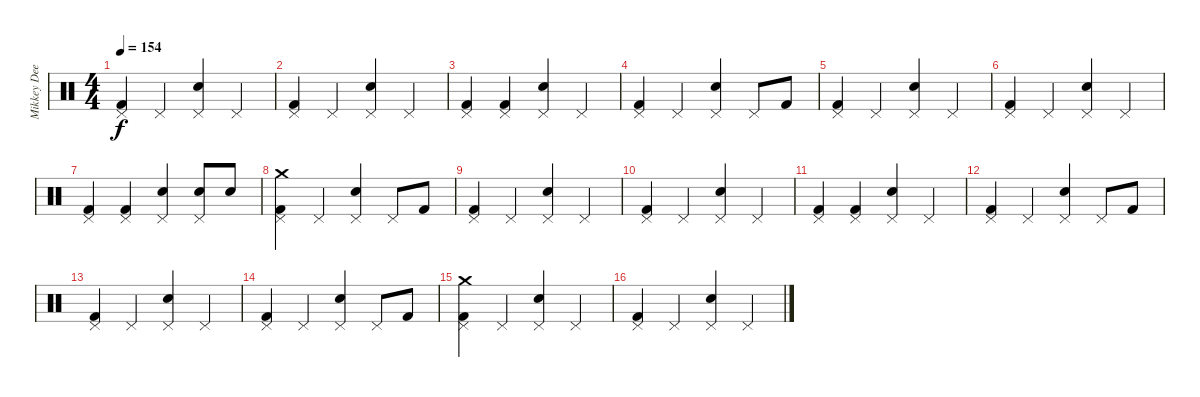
\track ("Mikkey Dee" "Mikkey Dee") {instrument percussion}
\staff {score}
\articulation defaults
\ts (4 4)
\tempo 154
\clef neutral
\ks c
("Kick (hit) 2" "Pedal Hi-Hat (hit)").4{dy f} "Pedal Hi-Hat (hit)".4 ("Snare (hit) 2" "Pedal Hi-Hat (hit)").4 "Pedal Hi-Hat (hit)".4 |
("Kick (hit) 2" "Pedal Hi-Hat (hit)").4 "Pedal Hi-Hat (hit)".4 ("Snare (hit) 2" "Pedal Hi-Hat (hit)").4 "Pedal Hi-Hat (hit)".4 |
("Kick (hit) 2" "Pedal Hi-Hat (hit)").4 ("Kick (hit) 2" "Pedal Hi-Hat (hit)").4 ("Snare (hit) 2" "Pedal Hi-Hat (hit)").4 "Pedal Hi-Hat (hit)".4 |
("Kick (hit) 2" "Pedal Hi-Hat (hit)").4 "Pedal Hi-Hat (hit)".4 ("Snare (hit) 2" "Pedal Hi-Hat (hit)").4 "Pedal Hi-Hat (hit)".8 "Kick (hit) 2".8 |
("Kick (hit) 2" "Pedal Hi-Hat (hit)").4 "Pedal Hi-Hat (hit)".4 ("Snare (hit) 2" "Pedal Hi-Hat (hit)").4 "Pedal Hi-Hat (hit)".4 |
("Kick (hit) 2" "Pedal Hi-Hat (hit)").4 "Pedal Hi-Hat (hit)".4 ("Snare (hit) 2" "Pedal Hi-Hat (hit)").4 "Pedal Hi-Hat (hit)".4 |
("Kick (hit) 2" "Pedal Hi-Hat (hit)").4 ("Kick (hit) 2" "Pedal Hi-Hat (hit)").4 ("Snare (hit) 2" "Pedal Hi-Hat (hit)").4 ("Snare (hit) 2" "Pedal Hi-Hat (hit)").8 "Snare (hit) 2".8 |
("Kick (hit) 2" "Pedal Hi-Hat (hit)" "Crash medium (hit)").4 "Pedal Hi-Hat (hit)".4 ("Snare (hit) 2" "Pedal Hi-Hat (hit)").4 "Pedal Hi-Hat (hit)".8 "Kick (hit) 2".8 |
("Kick (hit) 2" "Pedal Hi-Hat (hit)").4 "Pedal Hi-Hat (hit)".4 ("Snare (hit) 2" "Pedal Hi-Hat (hit)").4 "Pedal Hi-Hat (hit)".4 |
("Kick (hit) 2" "Pedal Hi-Hat (hit)").4 "Pedal Hi-Hat (hit)".4 ("Snare (hit) 2" "Pedal Hi-Hat (hit)").4 "Pedal Hi-Hat (hit)".4 |
("Kick (hit) 2" "Pedal Hi-Hat (hit)").4 ("Kick (hit) 2" "Pedal Hi-Hat (hit)").4 ("Snare (hit) 2" "Pedal Hi-Hat (hit)").4 "Pedal Hi-Hat (hit)".4 |
("Kick (hit) 2" "Pedal Hi-Hat (hit)").4 "Pedal Hi-Hat (hit)".4 ("Snare (hit) 2" "Pedal Hi-Hat (hit)").4 "Pedal Hi-Hat (hit)".8 "Kick (hit) 2".8 |
("Kick (hit) 2" "Pedal Hi-Hat (hit)").4 "Pedal Hi-Hat (hit)".4 ("Snare (hit) 2" "Pedal Hi-Hat (hit)").4 "Pedal Hi-Hat (hit)".4 |
("Kick (hit) 2" "Pedal Hi-Hat (hit)").4 "Pedal Hi-Hat (hit)".4 ("Snare (hit) 2" "Pedal Hi-Hat (hit)").4 "Pedal Hi-Hat (hit)".8 "Kick (hit) 2".8 |
("Kick (hit) 2" "Pedal Hi-Hat (hit)" "Crash medium (hit)").4 "Pedal Hi-Hat (hit)".4 ("Snare (hit) 2" "Pedal Hi-Hat (hit)").4 "Pedal Hi-Hat (hit)".4 |
("Kick (hit) 2" "Pedal Hi-Hat (hit)").4 "Pedal Hi-Hat (hit)".4 ("Snare (hit) 2" "Pedal Hi-Hat (hit)").4 "Pedal Hi-Hat (hit)".4
